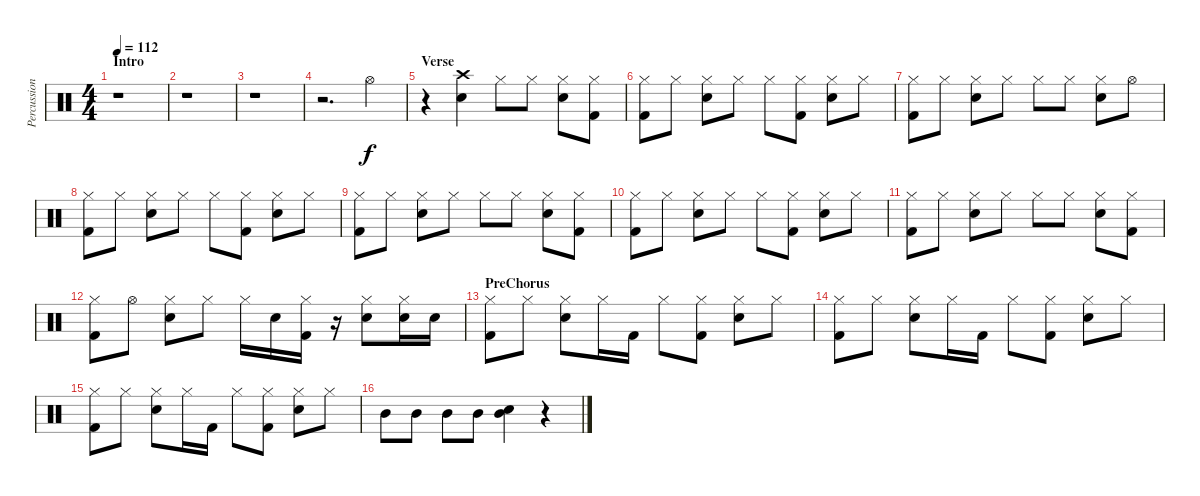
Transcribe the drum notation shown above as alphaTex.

\track ("Percussion" "Percussion") {instrument percussion}
\staff {score}
\articulation defaults
\ts (4 4)
\section ("" "Intro")
\tempo 112
\clef neutral
\ks c
r.1{dy f} |
r.1 |
r.1 |
r.2{d} "Hi-Hat (open)".4 |
\section ("" "Verse")
r.4 ("Crash high (hit)" "Snare (hit) 2").4 "Hi-Hat (closed)".8 "Hi-Hat (closed)".8 ("Hi-Hat (closed)" "Snare (hit) 2").8 ("Hi-Hat (closed)" "Kick (hit) 2").8 |
("Hi-Hat (closed)" "Kick (hit) 2").8 "Hi-Hat (closed)".8 ("Hi-Hat (closed)" "Snare (hit) 2").8 "Hi-Hat (closed)".8 "Hi-Hat (closed)".8 ("Hi-Hat (closed)" "Kick (hit) 2").8 ("Hi-Hat (closed)" "Snare (hit) 2").8 "Hi-Hat (closed)".8 |
("Hi-Hat (closed)" "Kick (hit) 2").8 "Hi-Hat (closed)".8 ("Hi-Hat (closed)" "Snare (hit) 2").8 "Hi-Hat (closed)".8 "Hi-Hat (closed)".8 "Hi-Hat (closed)".8 ("Hi-Hat (closed)" "Snare (hit) 2").8 "Hi-Hat (open)".8 |
("Hi-Hat (closed)" "Kick (hit) 2").8 "Hi-Hat (closed)".8 ("Hi-Hat (closed)" "Snare (hit) 2").8 "Hi-Hat (closed)".8 "Hi-Hat (closed)".8 ("Hi-Hat (closed)" "Kick (hit) 2").8 ("Hi-Hat (closed)" "Snare (hit) 2").8 "Hi-Hat (closed)".8 |
("Hi-Hat (closed)" "Kick (hit) 2").8 "Hi-Hat (closed)".8 ("Hi-Hat (closed)" "Snare (hit) 2").8 "Hi-Hat (closed)".8 "Hi-Hat (closed)".8 "Hi-Hat (closed)".8 ("Hi-Hat (closed)" "Snare (hit) 2").8 ("Hi-Hat (closed)" "Kick (hit) 2").8 |
("Hi-Hat (closed)" "Kick (hit) 2").8 "Hi-Hat (closed)".8 ("Hi-Hat (closed)" "Snare (hit) 2").8 "Hi-Hat (closed)".8 "Hi-Hat (closed)".8 ("Hi-Hat (closed)" "Kick (hit) 2").8 ("Hi-Hat (closed)" "Snare (hit) 2").8 "Hi-Hat (closed)".8 |
("Hi-Hat (closed)" "Kick (hit) 2").8 "Hi-Hat (closed)".8 ("Hi-Hat (closed)" "Snare (hit) 2").8 "Hi-Hat (closed)".8 "Hi-Hat (closed)".8 "Hi-Hat (closed)".8 ("Hi-Hat (closed)" "Snare (hit) 2").8 ("Hi-Hat (closed)" "Kick (hit) 2").8 |
("Hi-Hat (closed)" "Kick (hit) 2").8 "Hi-Hat (open)".8 ("Hi-Hat (closed)" "Snare (hit) 2").8 "Hi-Hat (closed)".8 "Hi-Hat (closed)".16 "Snare (hit) 2".16 ("Hi-Hat (closed)" "Kick (hit) 2").16 r.16 ("Hi-Hat (closed)" "Snare (hit) 2").8 ("Hi-Hat (closed)" "Snare (hit) 2").16 "Snare (hit) 2".16 |
\section ("" "PreChorus")
("Hi-Hat (closed)" "Kick (hit) 2").8 "Hi-Hat (closed)".8 ("Hi-Hat (closed)" "Snare (hit) 2").8 "Hi-Hat (closed)".16 "Kick (hit) 2".16 "Hi-Hat (closed)".8 ("Hi-Hat (closed)" "Kick (hit) 2").8 ("Hi-Hat (closed)" "Snare (hit) 2").8 "Hi-Hat (closed)".8 |
("Hi-Hat (closed)" "Kick (hit) 2").8 "Hi-Hat (closed)".8 ("Hi-Hat (closed)" "Snare (hit) 2").8 "Hi-Hat (closed)".16 "Kick (hit) 2".16 "Hi-Hat (closed)".8 ("Hi-Hat (closed)" "Kick (hit) 2").8 ("Hi-Hat (closed)" "Snare (hit) 2").8 "Hi-Hat (closed)".8 |
("Hi-Hat (closed)" "Kick (hit) 2").8 "Hi-Hat (closed)".8 ("Hi-Hat (closed)" "Snare (hit) 2").8 "Hi-Hat (closed)".16 "Kick (hit) 2".16 "Hi-Hat (closed)".8 ("Hi-Hat (closed)" "Kick (hit) 2").8 ("Hi-Hat (closed)" "Snare (hit) 2").8 "Hi-Hat (closed)".8 |
"Mid Tom (hit)".8 "Mid Tom (hit)".8 "Mid Tom (hit)".8 "Mid Tom (hit)".8 ("Mid Tom (hit)" "Snare (hit) 2").4 r.4
